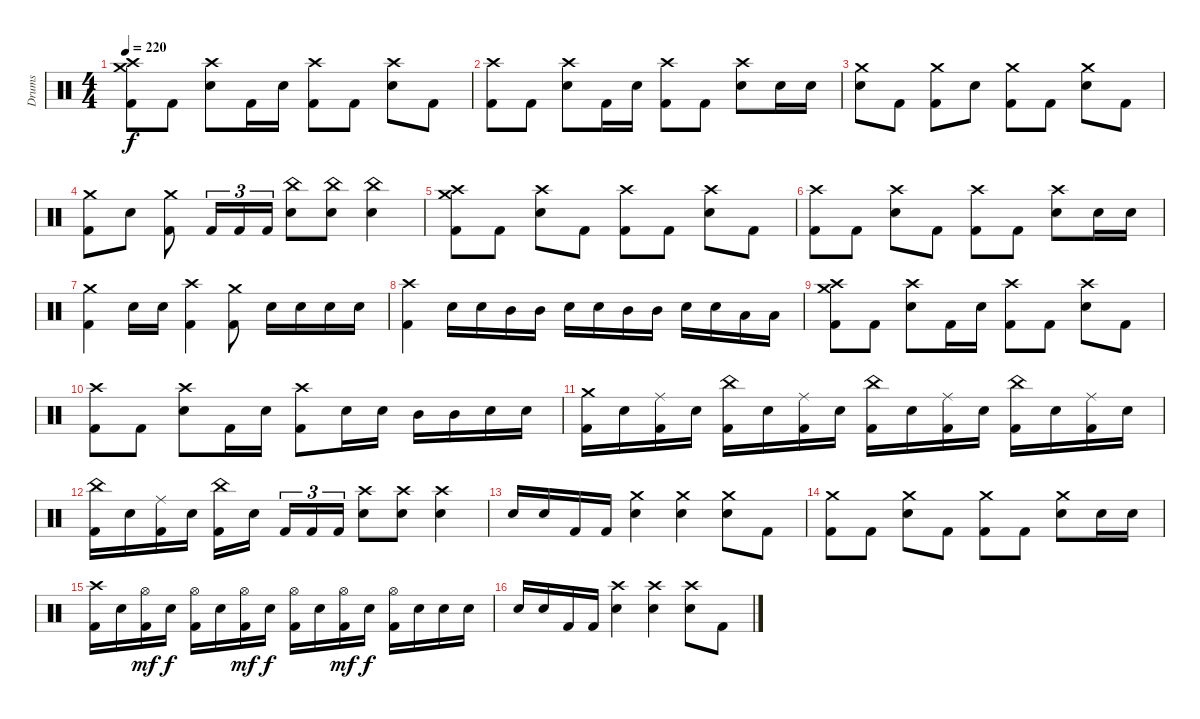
\track ("Drums" "Drums") {instrument percussion}
\staff {score}
\articulation defaults
\ts (4 4)
\tempo 220
\clef neutral
\ks c
("Crash medium (hit)" "Crash high (hit)" "Kick (hit) 2").8{dy f} "Kick (hit) 2".8 ("Crash high (hit)" "Electric Snare (hit)").8 "Kick (hit) 2".16 "Electric Snare (hit)".16 ("Crash high (hit)" "Kick (hit) 2").8 "Kick (hit) 2".8 ("Crash high (hit)" "Electric Snare (hit)").8 "Kick (hit) 2".8 |
("Crash high (hit)" "Kick (hit) 2").8 "Kick (hit) 2".8 ("Crash high (hit)" "Electric Snare (hit)").8 "Kick (hit) 2".16 "Electric Snare (hit)".16 ("Crash high (hit)" "Kick (hit) 2").8 "Kick (hit) 2".8 ("Crash high (hit)" "Electric Snare (hit)").8 "Electric Snare (hit)".16 "Electric Snare (hit)".16 |
("Crash medium (hit)" "Electric Snare (hit)").8 "Kick (hit) 2".8 ("Crash medium (hit)" "Kick (hit) 2").8 "Electric Snare (hit)".8 ("Crash medium (hit)" "Kick (hit) 2").8 "Kick (hit) 2".8 ("Crash medium (hit)" "Electric Snare (hit)").8 "Kick (hit) 2".8 |
("Crash medium (hit)" "Kick (hit) 2").8 "Electric Snare (hit)".8 ("Crash medium (hit)" "Kick (hit) 2").8 "Kick (hit) 2".16{tu (3 2)} "Kick (hit) 2".16{tu (3 2)} "Kick (hit) 2".16{tu (3 2)} ("China (hit)" "Electric Snare (hit)").8 ("China (hit)" "Electric Snare (hit)").8 ("China (hit)" "Electric Snare (hit)").4 |
("Crash medium (hit)" "Crash high (hit)" "Kick (hit) 2").8 "Kick (hit) 2".8 ("Crash high (hit)" "Electric Snare (hit)").8 "Kick (hit) 2".8 ("Crash high (hit)" "Kick (hit) 2").8 "Kick (hit) 2".8 ("Crash high (hit)" "Electric Snare (hit)").8 "Kick (hit) 2".8 |
("Crash high (hit)" "Kick (hit) 2").8 "Kick (hit) 2".8 ("Crash high (hit)" "Electric Snare (hit)").8 "Kick (hit) 2".8 ("Crash high (hit)" "Kick (hit) 2").8 "Kick (hit) 2".8 ("Crash high (hit)" "Electric Snare (hit)").8 "Electric Snare (hit)".16 "Electric Snare (hit)".16 |
("Crash medium (hit)" "Kick (hit) 2").4 "Electric Snare (hit)".16 "Electric Snare (hit)".16 ("Crash high (hit)" "Kick (hit) 2").4 ("Crash medium (hit)" "Kick (hit) 2").8 "Electric Snare (hit)".16 "Electric Snare (hit)".16 "Electric Snare (hit)".16 "Electric Snare (hit)".16 |
("Crash high (hit)" "Kick (hit) 2").4 "Electric Snare (hit)".16 "Electric Snare (hit)".16 "Mid Tom (hit)".16 "Mid Tom (hit)".16 "Electric Snare (hit)".16 "Electric Snare (hit)".16 "Mid Tom (hit)".16 "Mid Tom (hit)".16 "Electric Snare (hit)".16 "Electric Snare (hit)".16 "Low Tom (hit)".16 "Low Tom (hit)".16 |
("Crash medium (hit)" "Crash high (hit)" "Kick (hit) 2").8 "Kick (hit) 2".8 ("Crash high (hit)" "Electric Snare (hit)").8 "Kick (hit) 2".16 "Electric Snare (hit)".16 ("Crash high (hit)" "Kick (hit) 2").8 "Kick (hit) 2".8 ("Crash high (hit)" "Electric Snare (hit)").8 "Kick (hit) 2".8 |
("Crash high (hit)" "Kick (hit) 2").8 "Kick (hit) 2".8 ("Crash high (hit)" "Electric Snare (hit)").8 "Kick (hit) 2".16 "Electric Snare (hit)".16 ("Crash high (hit)" "Kick (hit) 2").8 "Electric Snare (hit)".16 "Electric Snare (hit)".16 "Mid Tom (hit)".16 "Mid Tom (hit)".16 "Electric Snare (hit)".16 "Electric Snare (hit)".16 |
("Crash medium (hit)" "Kick (hit) 2").16 "Electric Snare (hit)".16 ("Ride (middle)" "Kick (hit) 2").16 "Electric Snare (hit)".16 ("China (hit)" "Kick (hit) 2").16 "Electric Snare (hit)".16 ("Ride (middle)" "Kick (hit) 2").16 "Electric Snare (hit)".16 ("China (hit)" "Kick (hit) 2").16 "Electric Snare (hit)".16 ("Ride (middle)" "Kick (hit) 2").16 "Electric Snare (hit)".16 ("China (hit)" "Kick (hit) 2").16 "Electric Snare (hit)".16 ("Ride (middle)" "Kick (hit) 2").16 "Electric Snare (hit)".16 |
("China (hit)" "Kick (hit) 2").16 "Electric Snare (hit)".16 ("Ride (middle)" "Kick (hit) 2").16 "Electric Snare (hit)".16 ("China (hit)" "Kick (hit) 2").16 "Electric Snare (hit)".16{beam splitsecondary} "Kick (hit) 2".16{tu (3 2)} "Kick (hit) 2".16{tu (3 2)} "Kick (hit) 2".16{tu (3 2)} ("Crash high (hit)" "Electric Snare (hit)").8 ("Crash high (hit)" "Electric Snare (hit)").8 ("Crash high (hit)" "Electric Snare (hit)").4 |
"Electric Snare (hit)".16 "Electric Snare (hit)".16 "Kick (hit) 2".16 "Kick (hit) 2".16 ("Crash medium (hit)" "Electric Snare (hit)").4 ("Crash medium (hit)" "Electric Snare (hit)").4 ("Crash medium (hit)" "Electric Snare (hit)").8 "Kick (hit) 2".8 |
("Crash medium (hit)" "Kick (hit) 2").8 "Kick (hit) 2".8 ("Crash medium (hit)" "Electric Snare (hit)").8 "Kick (hit) 2".8 ("Crash medium (hit)" "Kick (hit) 2").8 "Kick (hit) 2".8 ("Crash medium (hit)" "Electric Snare (hit)").8 "Electric Snare (hit)".16 "Electric Snare (hit)".16 |
("Crash high (hit)" "Kick (hit) 2").16 "Electric Snare (hit)".16 ("Hi-Hat (open)" "Kick (hit) 2").16{dy mf} "Electric Snare (hit)".16{dy f} ("Hi-Hat (open)" "Kick (hit) 2").16 "Electric Snare (hit)".16 ("Hi-Hat (open)" "Kick (hit) 2").16{dy mf} "Electric Snare (hit)".16{dy f} ("Hi-Hat (open)" "Kick (hit) 2").16 "Electric Snare (hit)".16 ("Hi-Hat (open)" "Kick (hit) 2").16{dy mf} "Electric Snare (hit)".16{dy f} ("Hi-Hat (open)" "Kick (hit) 2").16 "Electric Snare (hit)".16 "Electric Snare (hit)".16 "Electric Snare (hit)".16 |
"Electric Snare (hit)".16 "Electric Snare (hit)".16 "Kick (hit) 2".16 "Kick (hit) 2".16 ("Crash high (hit)" "Electric Snare (hit)").4 ("Crash high (hit)" "Electric Snare (hit)").4 ("Crash high (hit)" "Electric Snare (hit)").8 "Kick (hit) 2".8
